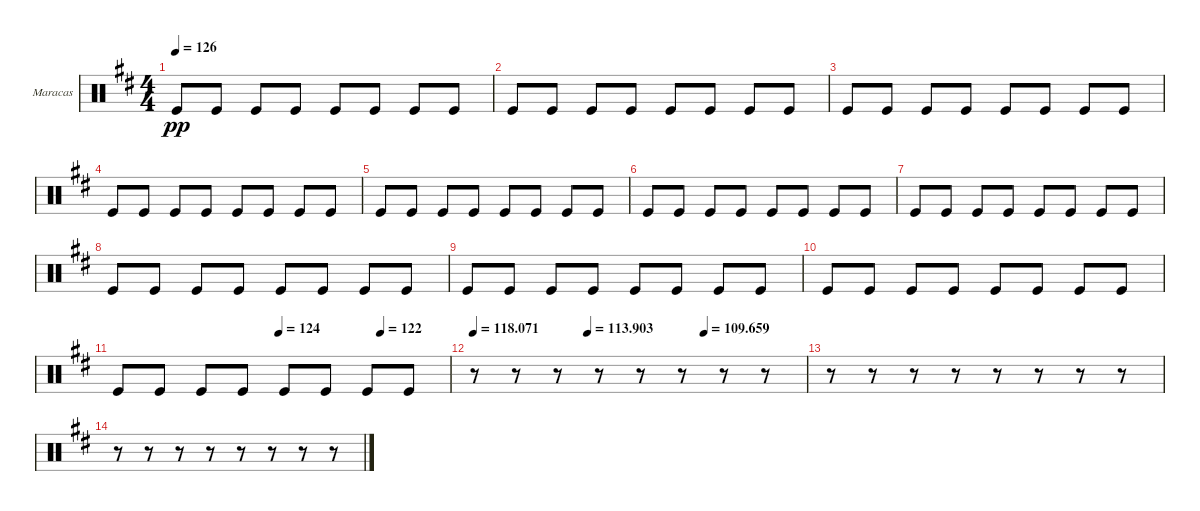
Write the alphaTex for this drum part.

\bracketExtendMode groupsimilarinstruments
\firstSystemTrackNameOrientation horizontal
\otherSystemsTrackNameOrientation horizontal
\track ("Maracas" "Maracas") {instrument percussion}
\staff {score}
\articulation defaults
\ts (4 4)
\tempo 126
\clef neutral
\ks d "Kick (hit)".8{dy pp} "Kick (hit)".8 "Kick (hit)".8 "Kick (hit)".8 "Kick (hit)".8 "Kick (hit)".8 "Kick (hit)".8 "Kick (hit)".8
|
"Kick (hit)".8 "Kick (hit)".8 "Kick (hit)".8 "Kick (hit)".8 "Kick (hit)".8 "Kick (hit)".8 "Kick (hit)".8 "Kick (hit)".8 |
"Kick (hit)".8 "Kick (hit)".8 "Kick (hit)".8 "Kick (hit)".8 "Kick (hit)".8 "Kick (hit)".8 "Kick (hit)".8 "Kick (hit)".8 |
"Kick (hit)".8 "Kick (hit)".8 "Kick (hit)".8 "Kick (hit)".8 "Kick (hit)".8 "Kick (hit)".8 "Kick (hit)".8 "Kick (hit)".8 |
"Kick (hit)".8 "Kick (hit)".8 "Kick (hit)".8 "Kick (hit)".8 "Kick (hit)".8 "Kick (hit)".8 "Kick (hit)".8 "Kick (hit)".8 |
"Kick (hit)".8 "Kick (hit)".8 "Kick (hit)".8 "Kick (hit)".8 "Kick (hit)".8 "Kick (hit)".8 "Kick (hit)".8 "Kick (hit)".8 |
\scale
0.633657 "Kick (hit)".8 "Kick (hit)".8 "Kick (hit)".8 "Kick (hit)".8 "Kick (hit)".8 "Kick (hit)".8 "Kick (hit)".8 "Kick (hit)".8 |
\scale
0.366376 "Kick (hit)".8 "Kick (hit)".8 "Kick (hit)".8 "Kick (hit)".8 "Kick (hit)".8 "Kick (hit)".8 "Kick (hit)".8 "Kick (hit)".8 |
"Kick (hit)".8 "Kick (hit)".8 "Kick (hit)".8 "Kick (hit)".8 "Kick (hit)".8 "Kick (hit)".8 "Kick (hit)".8 "Kick (hit)".8 |
"Kick (hit)".8 "Kick (hit)".8 "Kick (hit)".8 "Kick (hit)".8 "Kick (hit)".8 "Kick (hit)".8 "Kick (hit)".8 "Kick (hit)".8 |
\tempo (124 0.4875)
\tempo (122 0.79375)
"Kick (hit)".8 "Kick (hit)".8 "Kick (hit)".8 "Kick (hit)".8 "Kick (hit)".8 "Kick (hit)".8 "Kick (hit)".8 "Kick (hit)".8 |
\tempo
118.071
\tempo (113.903 0.34375)
\tempo (109.659 0.69375)
r.8 r.8 r.8 r.8 r.8 r.8 r.8 r.8 |
r.8 r.8 r.8 r.8 r.8 r.8 r.8 r.8 |
r.8 r.8 r.8 r.8 r.8 r.8 r.8 r.8
